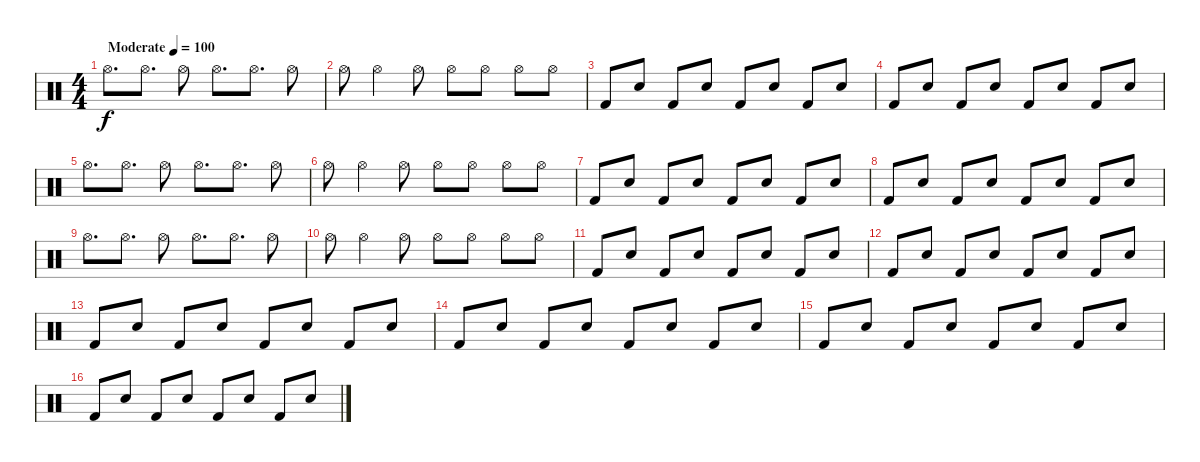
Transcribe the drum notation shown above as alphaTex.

\track "" {instrument percussion}
\staff {score}
\articulation defaults
\ts (4 4)
\tempo (100 "Moderate")
\clef neutral
\ks c "Hi-Hat (open)".8{d dy f} "Hi-Hat (open)".8{d} "Hi-Hat (open)".8 "Hi-Hat (open)".8{d} "Hi-Hat (open)".8{d} "Hi-Hat (open)".8
|
"Hi-Hat (open)".8 "Hi-Hat (open)".4 "Hi-Hat (open)".8 "Hi-Hat (open)".8 "Hi-Hat (open)".8 "Hi-Hat (open)".8 "Hi-Hat (open)".8 |
"Kick (hit) 2".8 "Electric Snare (hit)".8 "Kick (hit) 2".8 "Electric Snare (hit)".8 "Kick (hit) 2".8 "Electric Snare (hit)".8 "Kick (hit) 2".8 "Electric Snare (hit)".8 |
"Kick (hit) 2".8 "Electric Snare (hit)".8 "Kick (hit) 2".8 "Electric Snare (hit)".8 "Kick (hit) 2".8 "Electric Snare (hit)".8 "Kick (hit) 2".8 "Electric Snare (hit)".8 |
"Hi-Hat (open)".8{d} "Hi-Hat (open)".8{d} "Hi-Hat (open)".8 "Hi-Hat (open)".8{d} "Hi-Hat (open)".8{d} "Hi-Hat (open)".8 |
"Hi-Hat (open)".8 "Hi-Hat (open)".4 "Hi-Hat (open)".8 "Hi-Hat (open)".8 "Hi-Hat (open)".8 "Hi-Hat (open)".8 "Hi-Hat (open)".8 |
"Kick (hit) 2".8 "Electric Snare (hit)".8 "Kick (hit) 2".8 "Electric Snare (hit)".8 "Kick (hit) 2".8 "Electric Snare (hit)".8 "Kick (hit) 2".8 "Electric Snare (hit)".8 |
"Kick (hit) 2".8 "Electric Snare (hit)".8 "Kick (hit) 2".8 "Electric Snare (hit)".8 "Kick (hit) 2".8 "Electric Snare (hit)".8 "Kick (hit) 2".8 "Electric Snare (hit)".8 |
"Hi-Hat (open)".8{d} "Hi-Hat (open)".8{d} "Hi-Hat (open)".8 "Hi-Hat (open)".8{d} "Hi-Hat (open)".8{d} "Hi-Hat (open)".8 |
"Hi-Hat (open)".8 "Hi-Hat (open)".4 "Hi-Hat (open)".8 "Hi-Hat (open)".8 "Hi-Hat (open)".8 "Hi-Hat (open)".8 "Hi-Hat (open)".8 |
"Kick (hit) 2".8 "Electric Snare (hit)".8 "Kick (hit) 2".8 "Electric Snare (hit)".8 "Kick (hit) 2".8 "Electric Snare (hit)".8 "Kick (hit) 2".8 "Electric Snare (hit)".8 |
"Kick (hit) 2".8 "Electric Snare (hit)".8 "Kick (hit) 2".8 "Electric Snare (hit)".8 "Kick (hit) 2".8 "Electric Snare (hit)".8 "Kick (hit) 2".8 "Electric Snare (hit)".8 |
"Kick (hit) 2".8 "Electric Snare (hit)".8 "Kick (hit) 2".8 "Electric Snare (hit)".8 "Kick (hit) 2".8 "Electric Snare (hit)".8 "Kick (hit) 2".8 "Electric Snare (hit)".8 |
"Kick (hit) 2".8 "Electric Snare (hit)".8 "Kick (hit) 2".8 "Electric Snare (hit)".8 "Kick (hit) 2".8 "Electric Snare (hit)".8 "Kick (hit) 2".8 "Electric Snare (hit)".8 |
"Kick (hit) 2".8 "Electric Snare (hit)".8 "Kick (hit) 2".8 "Electric Snare (hit)".8 "Kick (hit) 2".8 "Electric Snare (hit)".8 "Kick (hit) 2".8 "Electric Snare (hit)".8 |
"Kick (hit) 2".8 "Electric Snare (hit)".8 "Kick (hit) 2".8 "Electric Snare (hit)".8 "Kick (hit) 2".8 "Electric Snare (hit)".8 "Kick (hit) 2".8 "Electric Snare (hit)".8
